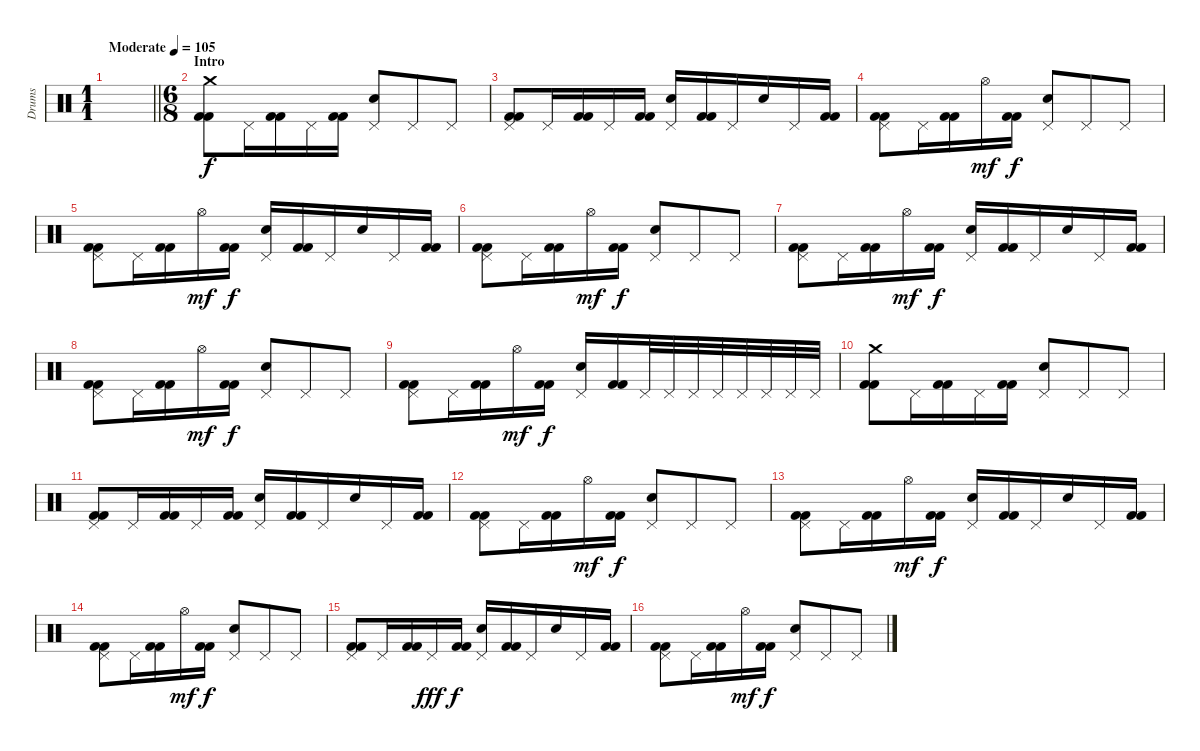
\track ("Drums" "Drums") {instrument percussion}
\staff {score}
\articulation defaults
\ts (1 1)
\tempo (105 "Moderate")
\clef neutral
\barLineRight lightlight
\ks c
|
\ts (6 8)
\section ("" "Intro")
("Crash medium (hit)" "Kick (hit) 2" "Kick (hit) 2").8 "Pedal Hi-Hat (hit)".16 ("Kick (hit) 2" "Kick (hit) 2").16 "Pedal Hi-Hat (hit)".16 ("Kick (hit) 2" "Kick (hit) 2").16 ("Pedal Hi-Hat (hit)" "Electric Snare (hit)").8 "Pedal Hi-Hat (hit)".8 "Pedal Hi-Hat (hit)".8 |
("Pedal Hi-Hat (hit)" "Kick (hit) 2" "Kick (hit) 2").8 "Pedal Hi-Hat (hit)".16 ("Kick (hit) 2" "Kick (hit) 2").16 "Pedal Hi-Hat (hit)".16 ("Kick (hit) 2" "Kick (hit) 2").16 ("Pedal Hi-Hat (hit)" "Electric Snare (hit)").16 ("Kick (hit) 2" "Kick (hit) 2").16 "Pedal Hi-Hat (hit)".16 "Electric Snare (hit)".16 "Pedal Hi-Hat (hit)".16 ("Kick (hit) 2" "Kick (hit) 2").16 |
("Pedal Hi-Hat (hit)" "Kick (hit) 2" "Kick (hit) 2").8 "Pedal Hi-Hat (hit)".16 ("Kick (hit) 2" "Kick (hit) 2").16 "Hi-Hat (open)".16{dy mf} ("Kick (hit) 2" "Kick (hit) 2").16{dy f} ("Pedal Hi-Hat (hit)" "Electric Snare (hit)").8 "Pedal Hi-Hat (hit)".8 "Pedal Hi-Hat (hit)".8 |
("Pedal Hi-Hat (hit)" "Kick (hit) 2" "Kick (hit) 2").8 "Pedal Hi-Hat (hit)".16 ("Kick (hit) 2" "Kick (hit) 2").16 "Hi-Hat (open)".16{dy mf} ("Kick (hit) 2" "Kick (hit) 2").16{dy f} ("Pedal Hi-Hat (hit)" "Electric Snare (hit)").16 ("Kick (hit) 2" "Kick (hit) 2").16 "Pedal Hi-Hat (hit)".16 "Electric Snare (hit)".16 "Pedal Hi-Hat (hit)".16 ("Kick (hit) 2" "Kick (hit) 2").16 |
("Pedal Hi-Hat (hit)" "Kick (hit) 2" "Kick (hit) 2").8 "Pedal Hi-Hat (hit)".16 ("Kick (hit) 2" "Kick (hit) 2").16 "Hi-Hat (open)".16{dy mf} ("Kick (hit) 2" "Kick (hit) 2").16{dy f} ("Pedal Hi-Hat (hit)" "Electric Snare (hit)").8 "Pedal Hi-Hat (hit)".8 "Pedal Hi-Hat (hit)".8 |
("Pedal Hi-Hat (hit)" "Kick (hit) 2" "Kick (hit) 2").8 "Pedal Hi-Hat (hit)".16 ("Kick (hit) 2" "Kick (hit) 2").16 "Hi-Hat (open)".16{dy mf} ("Kick (hit) 2" "Kick (hit) 2").16{dy f} ("Pedal Hi-Hat (hit)" "Electric Snare (hit)").16 ("Kick (hit) 2" "Kick (hit) 2").16 "Pedal Hi-Hat (hit)".16 "Electric Snare (hit)".16 "Pedal Hi-Hat (hit)".16 ("Kick (hit) 2" "Kick (hit) 2").16 |
("Pedal Hi-Hat (hit)" "Kick (hit) 2" "Kick (hit) 2").8 "Pedal Hi-Hat (hit)".16 ("Kick (hit) 2" "Kick (hit) 2").16 "Hi-Hat (open)".16{dy mf} ("Kick (hit) 2" "Kick (hit) 2").16{dy f} ("Pedal Hi-Hat (hit)" "Electric Snare (hit)").8 "Pedal Hi-Hat (hit)".8 "Pedal Hi-Hat (hit)".8 |
("Pedal Hi-Hat (hit)" "Kick (hit) 2" "Kick (hit) 2").8 "Pedal Hi-Hat (hit)".16 ("Kick (hit) 2" "Kick (hit) 2").16 "Hi-Hat (open)".16{dy mf} ("Kick (hit) 2" "Kick (hit) 2").16{dy f} ("Pedal Hi-Hat (hit)" "Electric Snare (hit)").16 ("Kick (hit) 2" "Kick (hit) 2").16 "Pedal Hi-Hat (hit)".32 "Pedal Hi-Hat (hit)".32 "Pedal Hi-Hat (hit)".32 "Pedal Hi-Hat (hit)".32 "Pedal Hi-Hat (hit)".32 "Pedal Hi-Hat (hit)".32 "Pedal Hi-Hat (hit)".32 "Pedal Hi-Hat (hit)".32 |
("Crash medium (hit)" "Kick (hit) 2" "Kick (hit) 2").8 "Pedal Hi-Hat (hit)".16 ("Kick (hit) 2" "Kick (hit) 2").16 "Pedal Hi-Hat (hit)".16 ("Kick (hit) 2" "Kick (hit) 2").16 ("Pedal Hi-Hat (hit)" "Electric Snare (hit)").8 "Pedal Hi-Hat (hit)".8 "Pedal Hi-Hat (hit)".8 |
("Pedal Hi-Hat (hit)" "Kick (hit) 2" "Kick (hit) 2").8 "Pedal Hi-Hat (hit)".16 ("Kick (hit) 2" "Kick (hit) 2").16 "Pedal Hi-Hat (hit)".16 ("Kick (hit) 2" "Kick (hit) 2").16 ("Pedal Hi-Hat (hit)" "Electric Snare (hit)").16 ("Kick (hit) 2" "Kick (hit) 2").16 "Pedal Hi-Hat (hit)".16 "Electric Snare (hit)".16 "Pedal Hi-Hat (hit)".16 ("Kick (hit) 2" "Kick (hit) 2").16 |
("Pedal Hi-Hat (hit)" "Kick (hit) 2" "Kick (hit) 2").8 "Pedal Hi-Hat (hit)".16 ("Kick (hit) 2" "Kick (hit) 2").16 "Hi-Hat (open)".16{dy mf} ("Kick (hit) 2" "Kick (hit) 2").16{dy f} ("Pedal Hi-Hat (hit)" "Electric Snare (hit)").8 "Pedal Hi-Hat (hit)".8 "Pedal Hi-Hat (hit)".8 |
("Pedal Hi-Hat (hit)" "Kick (hit) 2" "Kick (hit) 2").8 "Pedal Hi-Hat (hit)".16 ("Kick (hit) 2" "Kick (hit) 2").16 "Hi-Hat (open)".16{dy mf} ("Kick (hit) 2" "Kick (hit) 2").16{dy f} ("Pedal Hi-Hat (hit)" "Electric Snare (hit)").16 ("Kick (hit) 2" "Kick (hit) 2").16 "Pedal Hi-Hat (hit)".16 "Electric Snare (hit)".16 "Pedal Hi-Hat (hit)".16 ("Kick (hit) 2" "Kick (hit) 2").16 |
("Pedal Hi-Hat (hit)" "Kick (hit) 2" "Kick (hit) 2").8 "Pedal Hi-Hat (hit)".16 ("Kick (hit) 2" "Kick (hit) 2").16 "Hi-Hat (open)".16{dy mf} ("Kick (hit) 2" "Kick (hit) 2").16{dy f} ("Pedal Hi-Hat (hit)" "Electric Snare (hit)").8 "Pedal Hi-Hat (hit)".8 "Pedal Hi-Hat (hit)".8 |
("Pedal Hi-Hat (hit)" "Kick (hit) 2" "Kick (hit) 2").8 "Pedal Hi-Hat (hit)".16 ("Kick (hit) 2" "Kick (hit) 2").16 "Pedal Hi-Hat (hit)".16{dy fff} ("Kick (hit) 2" "Kick (hit) 2").16{dy f} ("Pedal Hi-Hat (hit)" "Electric Snare (hit)").16 ("Kick (hit) 2" "Kick (hit) 2").16 "Pedal Hi-Hat (hit)".16 "Electric Snare (hit)".16 "Pedal Hi-Hat (hit)".16 ("Kick (hit) 2" "Kick (hit) 2").16 |
("Pedal Hi-Hat (hit)" "Kick (hit) 2" "Kick (hit) 2").8 "Pedal Hi-Hat (hit)".16 ("Kick (hit) 2" "Kick (hit) 2").16 "Hi-Hat (open)".16{dy mf} ("Kick (hit) 2" "Kick (hit) 2").16{dy f} ("Pedal Hi-Hat (hit)" "Electric Snare (hit)").8 "Pedal Hi-Hat (hit)".8 "Pedal Hi-Hat (hit)".8
